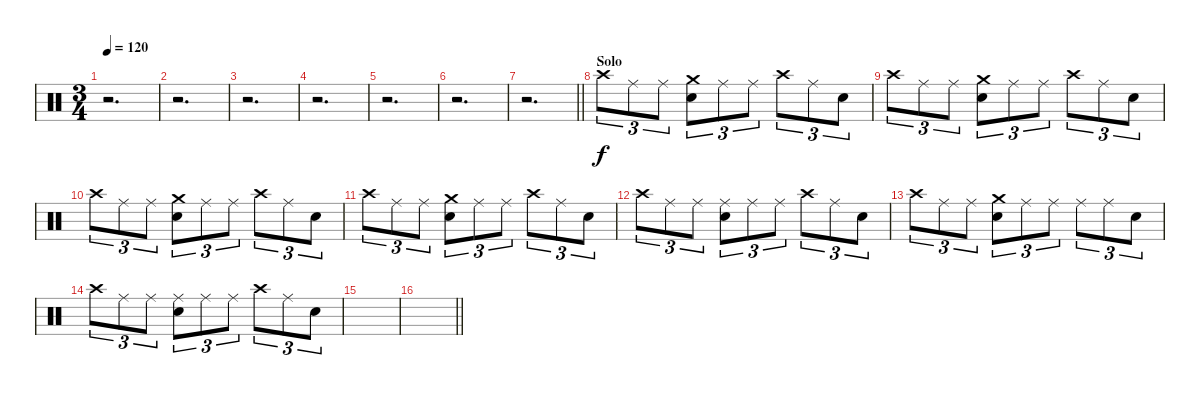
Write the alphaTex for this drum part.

\track "" {instrument percussion}
\staff {score}
\articulation defaults
\ts (3 4)
\tempo 120
\clef neutral
\ks c
r.2{d dy f} |
r.2{d} |
r.2{d} |
r.2{d} |
r.2{d} |
r.2{d} |
\barLineRight lightlight
r.2{d} |
\section ("" "Solo ")
"Crash high (hit)".8{tu (3 2)} "Ride (middle)".8{tu (3 2)} "Ride (middle)".8{tu (3 2)} ("Crash medium (hit)" "Snare (hit) 2").8{tu (3 2)} "Ride (middle)".8{tu (3 2)} "Ride (middle)".8{tu (3 2)} "Crash high (hit)".8{tu (3 2)} "Ride (middle)".8{tu (3 2)} "Snare (hit) 2".8{tu (3 2)} |
"Crash high (hit)".8{tu (3 2)} "Ride (middle)".8{tu (3 2)} "Ride (middle)".8{tu (3 2)} ("Crash medium (hit)" "Snare (hit) 2").8{tu (3 2)} "Ride (middle)".8{tu (3 2)} "Ride (middle)".8{tu (3 2)} "Crash high (hit)".8{tu (3 2)} "Ride (middle)".8{tu (3 2)} "Snare (hit) 2".8{tu (3 2)} |
"Crash high (hit)".8{tu (3 2)} "Ride (middle)".8{tu (3 2)} "Ride (middle)".8{tu (3 2)} ("Crash medium (hit)" "Snare (hit) 2").8{tu (3 2)} "Ride (middle)".8{tu (3 2)} "Ride (middle)".8{tu (3 2)} "Crash high (hit)".8{tu (3 2)} "Ride (middle)".8{tu (3 2)} "Snare (hit) 2".8{tu (3 2)} |
"Crash high (hit)".8{tu (3 2)} "Ride (middle)".8{tu (3 2)} "Ride (middle)".8{tu (3 2)} ("Crash medium (hit)" "Snare (hit) 2").8{tu (3 2)} "Ride (middle)".8{tu (3 2)} "Ride (middle)".8{tu (3 2)} "Crash high (hit)".8{tu (3 2)} "Ride (middle)".8{tu (3 2)} "Snare (hit) 2".8{tu (3 2)} |
"Crash high (hit)".8{tu (3 2)} "Ride (middle)".8{tu (3 2)} "Ride (middle)".8{tu (3 2)} ("Ride (middle)" "Snare (hit) 2").8{tu (3 2)} "Ride (middle)".8{tu (3 2)} "Ride (middle)".8{tu (3 2)} "Crash high (hit)".8{tu (3 2)} "Ride (middle)".8{tu (3 2)} "Snare (hit) 2".8{tu (3 2)} |
"Crash high (hit)".8{tu (3 2)} "Ride (middle)".8{tu (3 2)} "Ride (middle)".8{tu (3 2)} ("Crash medium (hit)" "Snare (hit) 2").8{tu (3 2)} "Ride (middle)".8{tu (3 2)} "Ride (middle)".8{tu (3 2)} "Ride (middle)".8{tu (3 2)} "Ride (middle)".8{tu (3 2)} "Snare (hit) 2".8{tu (3 2)} |
"Crash high (hit)".8{tu (3 2)} "Ride (middle)".8{tu (3 2)} "Ride (middle)".8{tu (3 2)} ("Ride (middle)" "Snare (hit) 2").8{tu (3 2)} "Ride (middle)".8{tu (3 2)} "Ride (middle)".8{tu (3 2)} "Crash high (hit)".8{tu (3 2)} "Ride (middle)".8{tu (3 2)} "Snare (hit) 2".8{tu (3 2)} |
|
\barLineRight lightlight
